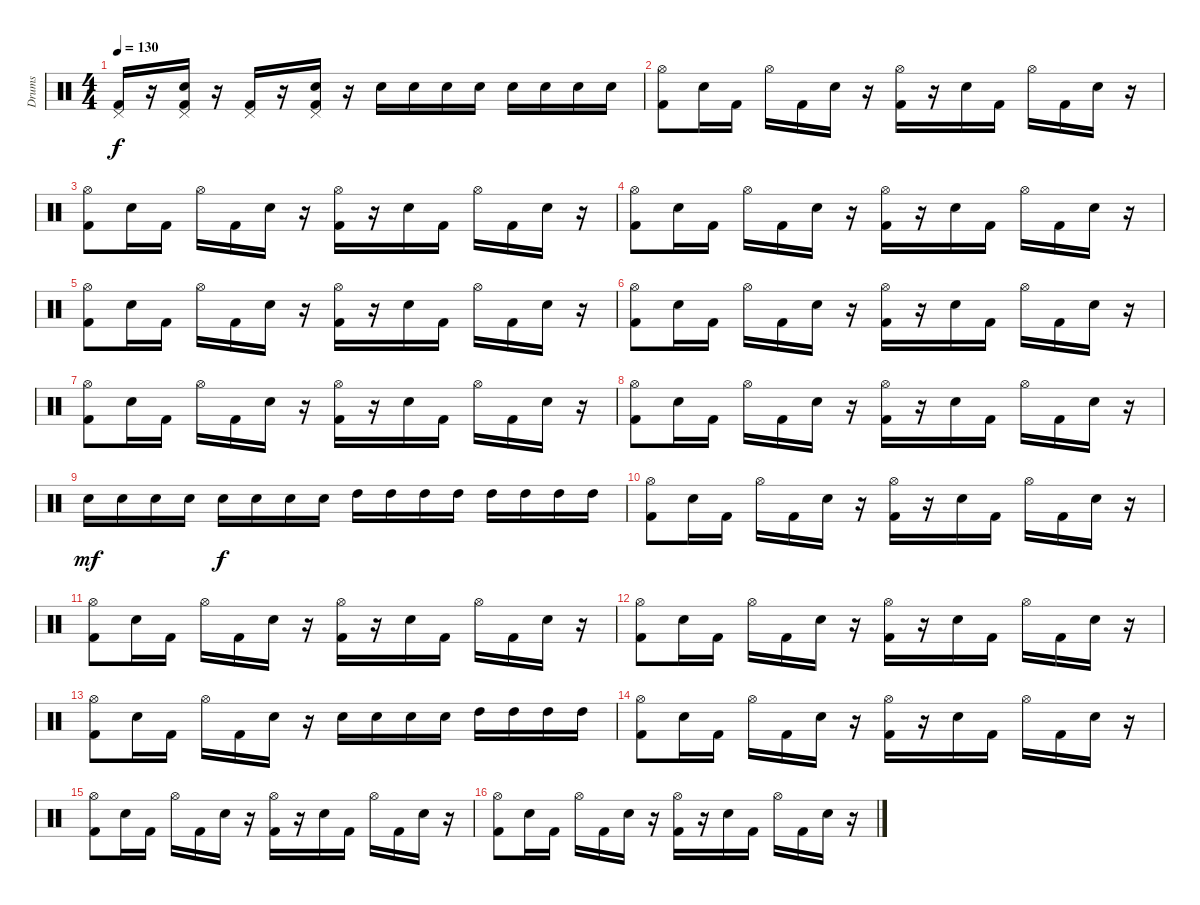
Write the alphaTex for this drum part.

\track ("Drums" "Drums") {instrument percussion}
\staff {score}
\articulation defaults
\ts (4 4)
\tempo 130
\clef neutral
\ks c
("Pedal Hi-Hat (hit)" "Kick (hit) 2").16{dy f} r.16 ("Pedal Hi-Hat (hit)" "Electric Snare (hit)" "Kick (hit) 2").16 r.16 ("Pedal Hi-Hat (hit)" "Kick (hit) 2").16 r.16 ("Pedal Hi-Hat (hit)" "Electric Snare (hit)" "Kick (hit) 2").16 r.16 "Electric Snare (hit)".16 "Electric Snare (hit)".16 "Electric Snare (hit)".16 "Electric Snare (hit)".16 "Electric Snare (hit)".16 "Electric Snare (hit)".16 "Electric Snare (hit)".16 "Electric Snare (hit)".16 |
("Hi-Hat (open)" "Kick (hit) 2").8 "Electric Snare (hit)".16 "Kick (hit) 2".16 "Hi-Hat (open)".16 "Kick (hit) 2".16 "Electric Snare (hit)".16 r.16 ("Hi-Hat (open)" "Kick (hit) 2").16 r.16 "Electric Snare (hit)".16 "Kick (hit) 2".16 "Hi-Hat (open)".16 "Kick (hit) 2".16 "Electric Snare (hit)".16 r.16 |
("Hi-Hat (open)" "Kick (hit) 2").8 "Electric Snare (hit)".16 "Kick (hit) 2".16 "Hi-Hat (open)".16 "Kick (hit) 2".16 "Electric Snare (hit)".16 r.16 ("Hi-Hat (open)" "Kick (hit) 2").16 r.16 "Electric Snare (hit)".16 "Kick (hit) 2".16 "Hi-Hat (open)".16 "Kick (hit) 2".16 "Electric Snare (hit)".16 r.16 |
("Hi-Hat (open)" "Kick (hit) 2").8 "Electric Snare (hit)".16 "Kick (hit) 2".16 "Hi-Hat (open)".16 "Kick (hit) 2".16 "Electric Snare (hit)".16 r.16 ("Hi-Hat (open)" "Kick (hit) 2").16 r.16 "Electric Snare (hit)".16 "Kick (hit) 2".16 "Hi-Hat (open)".16 "Kick (hit) 2".16 "Electric Snare (hit)".16 r.16 |
("Hi-Hat (open)" "Kick (hit) 2").8 "Electric Snare (hit)".16 "Kick (hit) 2".16 "Hi-Hat (open)".16 "Kick (hit) 2".16 "Electric Snare (hit)".16 r.16 ("Hi-Hat (open)" "Kick (hit) 2").16 r.16 "Electric Snare (hit)".16 "Kick (hit) 2".16 "Hi-Hat (open)".16 "Kick (hit) 2".16 "Electric Snare (hit)".16 r.16 |
("Hi-Hat (open)" "Kick (hit) 2").8 "Electric Snare (hit)".16 "Kick (hit) 2".16 "Hi-Hat (open)".16 "Kick (hit) 2".16 "Electric Snare (hit)".16 r.16 ("Hi-Hat (open)" "Kick (hit) 2").16 r.16 "Electric Snare (hit)".16 "Kick (hit) 2".16 "Hi-Hat (open)".16 "Kick (hit) 2".16 "Electric Snare (hit)".16 r.16 |
("Hi-Hat (open)" "Kick (hit) 2").8 "Electric Snare (hit)".16 "Kick (hit) 2".16 "Hi-Hat (open)".16 "Kick (hit) 2".16 "Electric Snare (hit)".16 r.16 ("Hi-Hat (open)" "Kick (hit) 2").16 r.16 "Electric Snare (hit)".16 "Kick (hit) 2".16 "Hi-Hat (open)".16 "Kick (hit) 2".16 "Electric Snare (hit)".16 r.16 |
("Hi-Hat (open)" "Kick (hit) 2").8 "Electric Snare (hit)".16 "Kick (hit) 2".16 "Hi-Hat (open)".16 "Kick (hit) 2".16 "Electric Snare (hit)".16 r.16 ("Hi-Hat (open)" "Kick (hit) 2").16 r.16 "Electric Snare (hit)".16 "Kick (hit) 2".16 "Hi-Hat (open)".16 "Kick (hit) 2".16 "Electric Snare (hit)".16 r.16 |
"Electric Snare (hit)".16{dy mf} "Electric Snare (hit)".16 "Electric Snare (hit)".16 "Electric Snare (hit)".16 "Electric Snare (hit)".16{dy f} "Electric Snare (hit)".16 "Electric Snare (hit)".16 "Electric Snare (hit)".16 "High Tom (hit)".16 "High Tom (hit)".16 "High Tom (hit)".16 "High Tom (hit)".16 "High Tom (hit)".16 "High Tom (hit)".16 "High Tom (hit)".16 "High Tom (hit)".16 |
("Hi-Hat (open)" "Kick (hit) 2").8 "Electric Snare (hit)".16 "Kick (hit) 2".16 "Hi-Hat (open)".16 "Kick (hit) 2".16 "Electric Snare (hit)".16 r.16 ("Hi-Hat (open)" "Kick (hit) 2").16 r.16 "Electric Snare (hit)".16 "Kick (hit) 2".16 "Hi-Hat (open)".16 "Kick (hit) 2".16 "Electric Snare (hit)".16 r.16 |
("Hi-Hat (open)" "Kick (hit) 2").8 "Electric Snare (hit)".16 "Kick (hit) 2".16 "Hi-Hat (open)".16 "Kick (hit) 2".16 "Electric Snare (hit)".16 r.16 ("Hi-Hat (open)" "Kick (hit) 2").16 r.16 "Electric Snare (hit)".16 "Kick (hit) 2".16 "Hi-Hat (open)".16 "Kick (hit) 2".16 "Electric Snare (hit)".16 r.16 |
("Hi-Hat (open)" "Kick (hit) 2").8 "Electric Snare (hit)".16 "Kick (hit) 2".16 "Hi-Hat (open)".16 "Kick (hit) 2".16 "Electric Snare (hit)".16 r.16 ("Hi-Hat (open)" "Kick (hit) 2").16 r.16 "Electric Snare (hit)".16 "Kick (hit) 2".16 "Hi-Hat (open)".16 "Kick (hit) 2".16 "Electric Snare (hit)".16 r.16 |
("Hi-Hat (open)" "Kick (hit) 2").8 "Electric Snare (hit)".16 "Kick (hit) 2".16 "Hi-Hat (open)".16 "Kick (hit) 2".16 "Electric Snare (hit)".16 r.16 "Electric Snare (hit)".16 "Electric Snare (hit)".16 "Electric Snare (hit)".16 "Electric Snare (hit)".16 "High Tom (hit)".16 "High Tom (hit)".16 "High Tom (hit)".16 "High Tom (hit)".16 |
("Hi-Hat (open)" "Kick (hit) 2").8 "Electric Snare (hit)".16 "Kick (hit) 2".16 "Hi-Hat (open)".16 "Kick (hit) 2".16 "Electric Snare (hit)".16 r.16 ("Hi-Hat (open)" "Kick (hit) 2").16 r.16 "Electric Snare (hit)".16 "Kick (hit) 2".16 "Hi-Hat (open)".16 "Kick (hit) 2".16 "Electric Snare (hit)".16 r.16 |
("Hi-Hat (open)" "Kick (hit) 2").8 "Electric Snare (hit)".16 "Kick (hit) 2".16 "Hi-Hat (open)".16 "Kick (hit) 2".16 "Electric Snare (hit)".16 r.16 ("Hi-Hat (open)" "Kick (hit) 2").16 r.16 "Electric Snare (hit)".16 "Kick (hit) 2".16 "Hi-Hat (open)".16 "Kick (hit) 2".16 "Electric Snare (hit)".16 r.16 |
("Hi-Hat (open)" "Kick (hit) 2").8 "Electric Snare (hit)".16 "Kick (hit) 2".16 "Hi-Hat (open)".16 "Kick (hit) 2".16 "Electric Snare (hit)".16 r.16 ("Hi-Hat (open)" "Kick (hit) 2").16 r.16 "Electric Snare (hit)".16 "Kick (hit) 2".16 "Hi-Hat (open)".16 "Kick (hit) 2".16 "Electric Snare (hit)".16 r.16
